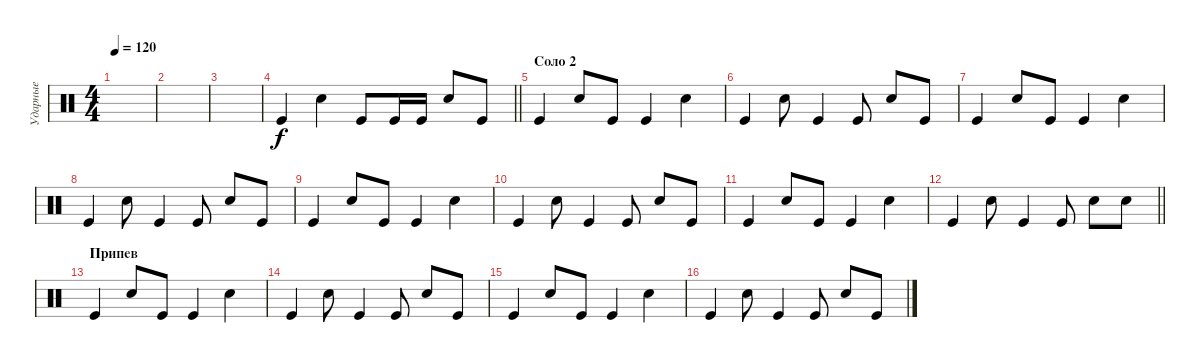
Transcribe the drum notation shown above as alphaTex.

\track ("Ударные" "Ударные") {instrument percussion}
\staff {score}
\articulation defaults
\ts (4 4)
\tempo 120
\clef neutral
\ks c
|
|
|
\barLineRight lightlight "Kick (hit)".4 "Snare (hit) 2".4 "Kick (hit)".8 "Kick (hit)".16 "Kick (hit)".16 "Snare (hit) 2".8 "Kick (hit)".8
|
\section ("" "Соло 2")
"Kick (hit)".4 "Snare (hit) 2".8 "Kick (hit)".8 "Kick (hit)".4 "Snare (hit) 2".4 |
"Kick (hit)".4 "Snare (hit) 2".8 "Kick (hit)".4 "Kick (hit)".8 "Snare (hit) 2".8 "Kick (hit)".8 |
"Kick (hit)".4 "Snare (hit) 2".8 "Kick (hit)".8 "Kick (hit)".4 "Snare (hit) 2".4 |
"Kick (hit)".4 "Snare (hit) 2".8 "Kick (hit)".4 "Kick (hit)".8 "Snare (hit) 2".8 "Kick (hit)".8 |
"Kick (hit)".4 "Snare (hit) 2".8 "Kick (hit)".8 "Kick (hit)".4 "Snare (hit) 2".4 |
"Kick (hit)".4 "Snare (hit) 2".8 "Kick (hit)".4 "Kick (hit)".8 "Snare (hit) 2".8 "Kick (hit)".8 |
"Kick (hit)".4 "Snare (hit) 2".8 "Kick (hit)".8 "Kick (hit)".4 "Snare (hit) 2".4 |
\barLineRight lightlight "Kick (hit)".4 "Snare (hit) 2".8 "Kick (hit)".4 "Kick (hit)".8 "Snare (hit) 2".8 "Snare (hit) 2".8
|
\section ("" "Припев")
"Kick (hit)".4 "Snare (hit) 2".8 "Kick (hit)".8 "Kick (hit)".4 "Snare (hit) 2".4 |
"Kick (hit)".4 "Snare (hit) 2".8 "Kick (hit)".4 "Kick (hit)".8 "Snare (hit) 2".8 "Kick (hit)".8 |
"Kick (hit)".4 "Snare (hit) 2".8 "Kick (hit)".8 "Kick (hit)".4 "Snare (hit) 2".4 |
"Kick (hit)".4 "Snare (hit) 2".8 "Kick (hit)".4 "Kick (hit)".8 "Snare (hit) 2".8 "Kick (hit)".8
